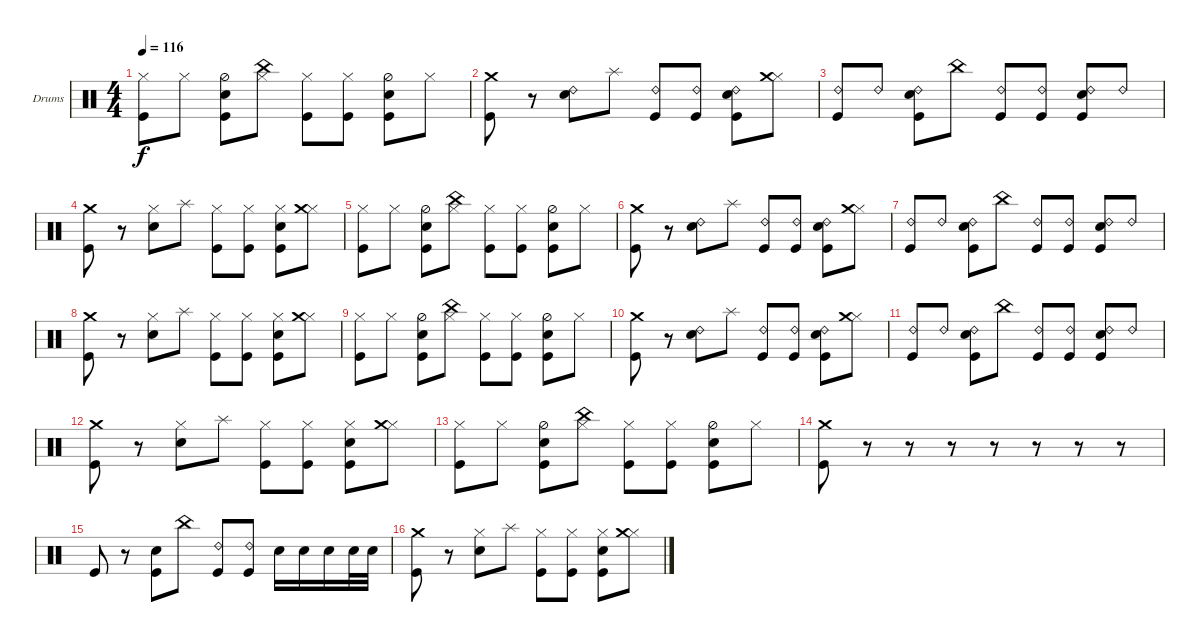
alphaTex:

\bracketExtendMode groupsimilarinstruments
\firstSystemTrackNameOrientation horizontal
\otherSystemsTrackNameOrientation horizontal
\track ("Mick Brown" "Drums") {instrument percussion}
\staff {score}
\articulation defaults
\ts (4 4)
\tempo 116
\clef neutral
\ks c
("Kick (hit)" "Hi-Hat (closed)").8{dy f} "Hi-Hat (closed)".8 ("Snare (hit) 2" "Kick (hit)" "Hi-Hat (half)").8 ("Hi-Hat (closed)" "China (hit)").8 ("Kick (hit)" "Hi-Hat (closed)").8 ("Kick (hit)" "Hi-Hat (closed)").8 ("Snare (hit) 2" "Kick (hit)" "Hi-Hat (half)").8 "Hi-Hat (closed)".8 |
("Kick (hit)" "Crash medium (hit)").8 r.8 ("Snare (hit) 2" "Ride (bell) 2").8 "Splash (hit)".8 ("Kick (hit)" "Ride (bell) 2").8 ("Kick (hit)" "Ride (bell) 2").8 ("Snare (hit) 2" "Kick (hit)" "Ride (bell) 2").8 ("Hi-Hat (closed)" "Crash medium (hit)").8 |
("Kick (hit)" "Ride (bell) 2").8 "Ride (bell) 2".8 ("Snare (hit) 2" "Kick (hit)" "Ride (bell) 2").8 "China (hit)".8 ("Kick (hit)" "Ride (bell) 2").8 ("Kick (hit)" "Ride (bell) 2").8 ("Snare (hit) 2" "Kick (hit)" "Ride (bell) 2").8 "Ride (bell) 2".8 |
("Kick (hit)" "Crash medium (hit)").8 r.8 ("Snare (hit) 2" "Hi-Hat (closed)").8 "Splash (hit)".8 ("Kick (hit)" "Hi-Hat (closed)").8 ("Kick (hit)" "Hi-Hat (closed)").8 ("Snare (hit) 2" "Kick (hit)" "Hi-Hat (closed)").8 ("Hi-Hat (closed)" "Crash medium (hit)").8 |
("Kick (hit)" "Hi-Hat (closed)").8 "Hi-Hat (closed)".8 ("Snare (hit) 2" "Kick (hit)" "Hi-Hat (half)").8 ("Hi-Hat (closed)" "China (hit)").8 ("Kick (hit)" "Hi-Hat (closed)").8 ("Kick (hit)" "Hi-Hat (closed)").8 ("Snare (hit) 2" "Kick (hit)" "Hi-Hat (half)").8 "Hi-Hat (closed)".8 |
("Kick (hit)" "Crash medium (hit)").8 r.8 ("Snare (hit) 2" "Ride (bell) 2").8 "Splash (hit)".8 ("Kick (hit)" "Ride (bell) 2").8 ("Kick (hit)" "Ride (bell) 2").8 ("Snare (hit) 2" "Kick (hit)" "Ride (bell) 2").8 ("Hi-Hat (closed)" "Crash medium (hit)").8 |
("Kick (hit)" "Ride (bell) 2").8 "Ride (bell) 2".8 ("Snare (hit) 2" "Kick (hit)" "Ride (bell) 2").8 "China (hit)".8 ("Kick (hit)" "Ride (bell) 2").8 ("Kick (hit)" "Ride (bell) 2").8 ("Snare (hit) 2" "Kick (hit)" "Ride (bell) 2").8 "Ride (bell) 2".8 |
("Kick (hit)" "Crash medium (hit)").8 r.8 ("Snare (hit) 2" "Hi-Hat (closed)").8 "Splash (hit)".8 ("Kick (hit)" "Hi-Hat (closed)").8 ("Kick (hit)" "Hi-Hat (closed)").8 ("Snare (hit) 2" "Kick (hit)" "Hi-Hat (closed)").8 ("Hi-Hat (closed)" "Crash medium (hit)").8 |
("Kick (hit)" "Hi-Hat (closed)").8 "Hi-Hat (closed)".8 ("Snare (hit) 2" "Kick (hit)" "Hi-Hat (half)").8 ("Hi-Hat (closed)" "China (hit)").8 ("Kick (hit)" "Hi-Hat (closed)").8 ("Kick (hit)" "Hi-Hat (closed)").8 ("Snare (hit) 2" "Kick (hit)" "Hi-Hat (half)").8 "Hi-Hat (closed)".8 |
("Kick (hit)" "Crash medium (hit)").8 r.8 ("Snare (hit) 2" "Ride (bell) 2").8 "Splash (hit)".8 ("Kick (hit)" "Ride (bell) 2").8 ("Kick (hit)" "Ride (bell) 2").8 ("Snare (hit) 2" "Kick (hit)" "Ride (bell) 2").8 ("Hi-Hat (closed)" "Crash medium (hit)").8 |
("Kick (hit)" "Ride (bell) 2").8 "Ride (bell) 2".8 ("Snare (hit) 2" "Kick (hit)" "Ride (bell) 2").8 "China (hit)".8 ("Kick (hit)" "Ride (bell) 2").8 ("Kick (hit)" "Ride (bell) 2").8 ("Snare (hit) 2" "Kick (hit)" "Ride (bell) 2").8 "Ride (bell) 2".8 |
("Kick (hit)" "Crash medium (hit)").8 r.8 ("Snare (hit) 2" "Hi-Hat (closed)").8 "Splash (hit)".8 ("Kick (hit)" "Hi-Hat (closed)").8 ("Kick (hit)" "Hi-Hat (closed)").8 ("Snare (hit) 2" "Kick (hit)" "Hi-Hat (closed)").8 ("Hi-Hat (closed)" "Crash medium (hit)").8 |
("Kick (hit)" "Hi-Hat (closed)").8 "Hi-Hat (closed)".8 ("Snare (hit) 2" "Kick (hit)" "Hi-Hat (half)").8 ("Hi-Hat (closed)" "China (hit)").8 ("Kick (hit)" "Hi-Hat (closed)").8 ("Kick (hit)" "Hi-Hat (closed)").8 ("Snare (hit) 2" "Kick (hit)" "Hi-Hat (half)").8 "Hi-Hat (closed)".8 |
("Kick (hit)" "Crash medium (hit)").8 r.8 r.8 r.8 r.8 r.8 r.8 r.8 |
"Kick (hit)".8 r.8 ("Snare (hit) 2" "Kick (hit)").8 "China (hit)".8 ("Kick (hit)" "Ride (bell) 2").8 ("Kick (hit)" "Ride (bell) 2").8 "Snare (hit) 2".16 "Snare (hit) 2".16 "Snare (hit) 2".16 "Snare (hit) 2".32 "Snare (hit) 2".32 |
("Kick (hit)" "Crash medium (hit)").8 r.8 ("Snare (hit) 2" "Hi-Hat (closed)").8 "Splash (hit)".8 ("Kick (hit)" "Hi-Hat (closed)").8 ("Kick (hit)" "Hi-Hat (closed)").8 ("Snare (hit) 2" "Kick (hit)" "Hi-Hat (closed)").8 ("Hi-Hat (closed)" "Crash medium (hit)").8
